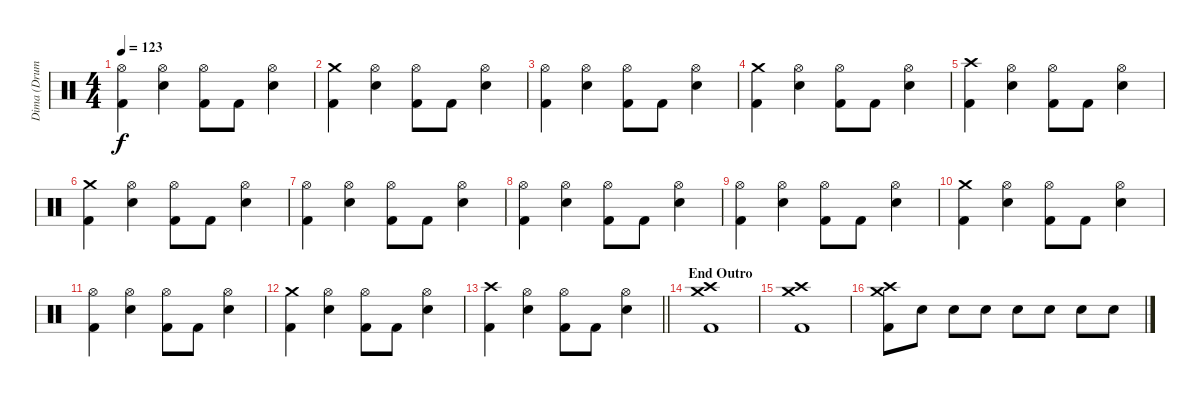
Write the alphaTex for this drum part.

\track ("Dima (Drums)" "Dima (Drum") {instrument percussion}
\staff {score}
\articulation defaults
\ts (4 4)
\tempo 123
\clef neutral
\ks c
("Hi-Hat (open)" "Kick (hit) 2").4{dy f} ("Hi-Hat (open)" "Snare (hit) 2").4 ("Hi-Hat (open)" "Kick (hit) 2").8 "Kick (hit) 2".8 ("Hi-Hat (open)" "Snare (hit) 2").4 |
("Crash medium (hit)" "Kick (hit) 2").4 ("Hi-Hat (open)" "Snare (hit) 2").4 ("Hi-Hat (open)" "Kick (hit) 2").8 "Kick (hit) 2".8 ("Hi-Hat (open)" "Snare (hit) 2").4 |
("Hi-Hat (open)" "Kick (hit) 2").4 ("Hi-Hat (open)" "Snare (hit) 2").4 ("Hi-Hat (open)" "Kick (hit) 2").8 "Kick (hit) 2".8 ("Hi-Hat (open)" "Snare (hit) 2").4 |
("Crash medium (hit)" "Kick (hit) 2").4 ("Hi-Hat (open)" "Snare (hit) 2").4 ("Hi-Hat (open)" "Kick (hit) 2").8 "Kick (hit) 2".8 ("Hi-Hat (open)" "Snare (hit) 2").4 |
("Crash high (hit)" "Kick (hit) 2").4 ("Hi-Hat (open)" "Snare (hit) 2").4 ("Hi-Hat (open)" "Kick (hit) 2").8 "Kick (hit) 2".8 ("Hi-Hat (open)" "Snare (hit) 2").4 |
("Crash medium (hit)" "Kick (hit) 2").4 ("Hi-Hat (open)" "Snare (hit) 2").4 ("Hi-Hat (open)" "Kick (hit) 2").8 "Kick (hit) 2".8 ("Hi-Hat (open)" "Snare (hit) 2").4 |
("Hi-Hat (open)" "Kick (hit) 2").4 ("Hi-Hat (open)" "Snare (hit) 2").4 ("Hi-Hat (open)" "Kick (hit) 2").8 "Kick (hit) 2".8 ("Hi-Hat (open)" "Snare (hit) 2").4 |
("Hi-Hat (open)" "Kick (hit) 2").4 ("Hi-Hat (open)" "Snare (hit) 2").4 ("Hi-Hat (open)" "Kick (hit) 2").8 "Kick (hit) 2".8 ("Hi-Hat (open)" "Snare (hit) 2").4 |
("Hi-Hat (open)" "Kick (hit) 2").4 ("Hi-Hat (open)" "Snare (hit) 2").4 ("Hi-Hat (open)" "Kick (hit) 2").8 "Kick (hit) 2".8 ("Hi-Hat (open)" "Snare (hit) 2").4 |
("Crash medium (hit)" "Kick (hit) 2").4 ("Hi-Hat (open)" "Snare (hit) 2").4 ("Hi-Hat (open)" "Kick (hit) 2").8 "Kick (hit) 2".8 ("Hi-Hat (open)" "Snare (hit) 2").4 |
("Hi-Hat (open)" "Kick (hit) 2").4 ("Hi-Hat (open)" "Snare (hit) 2").4 ("Hi-Hat (open)" "Kick (hit) 2").8 "Kick (hit) 2".8 ("Hi-Hat (open)" "Snare (hit) 2").4 |
("Crash medium (hit)" "Kick (hit) 2").4 ("Hi-Hat (open)" "Snare (hit) 2").4 ("Hi-Hat (open)" "Kick (hit) 2").8 "Kick (hit) 2".8 ("Hi-Hat (open)" "Snare (hit) 2").4 |
\barLineRight lightlight
("Crash high (hit)" "Kick (hit) 2").4 ("Hi-Hat (open)" "Snare (hit) 2").4 ("Hi-Hat (open)" "Kick (hit) 2").8 "Kick (hit) 2".8 ("Hi-Hat (open)" "Snare (hit) 2").4 |
\section ("" "End Outro")
("Crash high (hit)" "Crash medium (hit)" "Kick (hit) 2").1 |
("Crash high (hit)" "Crash medium (hit)" "Kick (hit) 2").1 |
("Crash high (hit)" "Crash medium (hit)" "Kick (hit) 2").8 "Snare (hit) 2".8 "Snare (hit) 2".8 "Snare (hit) 2".8 "Snare (hit) 2".8 "Snare (hit) 2".8 "Snare (hit) 2".8 "Snare (hit) 2".8
